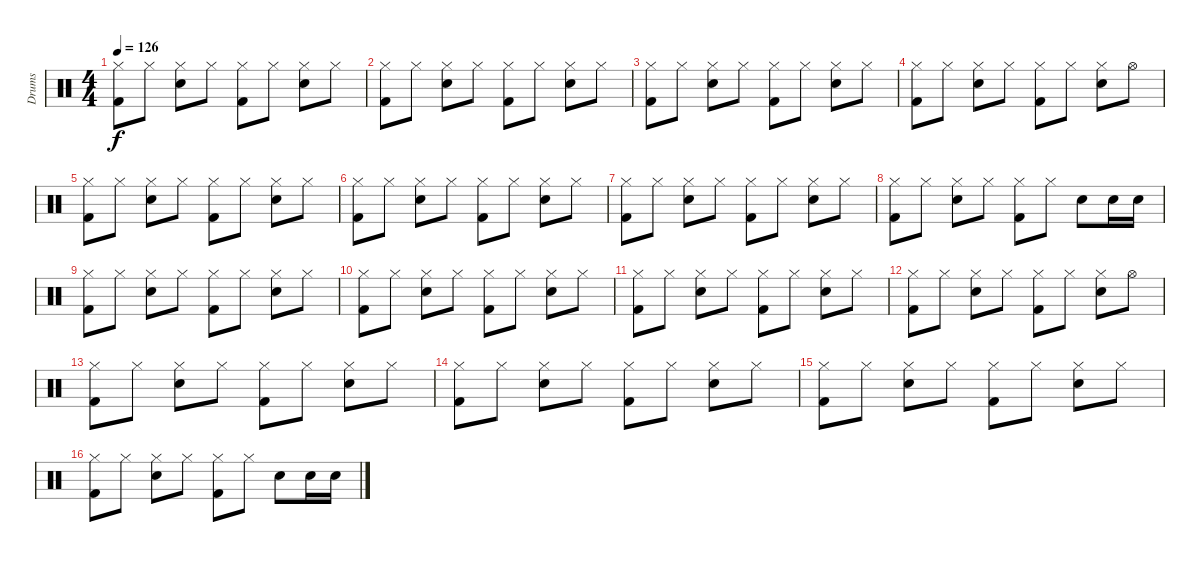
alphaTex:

\track ("Drums" "Drums") {instrument percussion}
\staff {score}
\articulation defaults
\ts (4 4)
\tempo 126
\clef neutral
\ks c
("Kick (hit) 2" "Hi-Hat (closed)").8{dy f} "Hi-Hat (closed)".8 ("Snare (hit) 2" "Hi-Hat (closed)").8 "Hi-Hat (closed)".8 ("Kick (hit) 2" "Hi-Hat (closed)").8 "Hi-Hat (closed)".8 ("Snare (hit) 2" "Hi-Hat (closed)").8 "Hi-Hat (closed)".8 |
("Kick (hit) 2" "Hi-Hat (closed)").8 "Hi-Hat (closed)".8 ("Snare (hit) 2" "Hi-Hat (closed)").8 "Hi-Hat (closed)".8 ("Kick (hit) 2" "Hi-Hat (closed)").8 "Hi-Hat (closed)".8 ("Snare (hit) 2" "Hi-Hat (closed)").8 "Hi-Hat (closed)".8 |
("Kick (hit) 2" "Hi-Hat (closed)").8 "Hi-Hat (closed)".8 ("Snare (hit) 2" "Hi-Hat (closed)").8 "Hi-Hat (closed)".8 ("Kick (hit) 2" "Hi-Hat (closed)").8 "Hi-Hat (closed)".8 ("Snare (hit) 2" "Hi-Hat (closed)").8 "Hi-Hat (closed)".8 |
("Kick (hit) 2" "Hi-Hat (closed)").8 "Hi-Hat (closed)".8 ("Snare (hit) 2" "Hi-Hat (closed)").8 "Hi-Hat (closed)".8 ("Kick (hit) 2" "Hi-Hat (closed)").8 "Hi-Hat (closed)".8 ("Snare (hit) 2" "Hi-Hat (closed)").8 "Hi-Hat (open)".8 |
("Kick (hit) 2" "Hi-Hat (closed)").8 "Hi-Hat (closed)".8 ("Snare (hit) 2" "Hi-Hat (closed)").8 "Hi-Hat (closed)".8 ("Kick (hit) 2" "Hi-Hat (closed)").8 "Hi-Hat (closed)".8 ("Snare (hit) 2" "Hi-Hat (closed)").8 "Hi-Hat (closed)".8 |
("Kick (hit) 2" "Hi-Hat (closed)").8 "Hi-Hat (closed)".8 ("Snare (hit) 2" "Hi-Hat (closed)").8 "Hi-Hat (closed)".8 ("Kick (hit) 2" "Hi-Hat (closed)").8 "Hi-Hat (closed)".8 ("Snare (hit) 2" "Hi-Hat (closed)").8 "Hi-Hat (closed)".8 |
("Kick (hit) 2" "Hi-Hat (closed)").8 "Hi-Hat (closed)".8 ("Snare (hit) 2" "Hi-Hat (closed)").8 "Hi-Hat (closed)".8 ("Kick (hit) 2" "Hi-Hat (closed)").8 "Hi-Hat (closed)".8 ("Snare (hit) 2" "Hi-Hat (closed)").8 "Hi-Hat (closed)".8 |
("Kick (hit) 2" "Hi-Hat (closed)").8 "Hi-Hat (closed)".8 ("Snare (hit) 2" "Hi-Hat (closed)").8 "Hi-Hat (closed)".8 ("Kick (hit) 2" "Hi-Hat (closed)").8 "Hi-Hat (closed)".8 "Snare (hit) 2".8 "Snare (hit) 2".16 "Snare (hit) 2".16 |
("Kick (hit) 2" "Hi-Hat (closed)").8 "Hi-Hat (closed)".8 ("Snare (hit) 2" "Hi-Hat (closed)").8 "Hi-Hat (closed)".8 ("Kick (hit) 2" "Hi-Hat (closed)").8 "Hi-Hat (closed)".8 ("Snare (hit) 2" "Hi-Hat (closed)").8 "Hi-Hat (closed)".8 |
("Kick (hit) 2" "Hi-Hat (closed)").8 "Hi-Hat (closed)".8 ("Snare (hit) 2" "Hi-Hat (closed)").8 "Hi-Hat (closed)".8 ("Kick (hit) 2" "Hi-Hat (closed)").8 "Hi-Hat (closed)".8 ("Snare (hit) 2" "Hi-Hat (closed)").8 "Hi-Hat (closed)".8 |
("Kick (hit) 2" "Hi-Hat (closed)").8 "Hi-Hat (closed)".8 ("Snare (hit) 2" "Hi-Hat (closed)").8 "Hi-Hat (closed)".8 ("Kick (hit) 2" "Hi-Hat (closed)").8 "Hi-Hat (closed)".8 ("Snare (hit) 2" "Hi-Hat (closed)").8 "Hi-Hat (closed)".8 |
("Kick (hit) 2" "Hi-Hat (closed)").8 "Hi-Hat (closed)".8 ("Snare (hit) 2" "Hi-Hat (closed)").8 "Hi-Hat (closed)".8 ("Kick (hit) 2" "Hi-Hat (closed)").8 "Hi-Hat (closed)".8 ("Snare (hit) 2" "Hi-Hat (closed)").8 "Hi-Hat (open)".8 |
("Kick (hit) 2" "Hi-Hat (closed)").8 "Hi-Hat (closed)".8 ("Snare (hit) 2" "Hi-Hat (closed)").8 "Hi-Hat (closed)".8 ("Kick (hit) 2" "Hi-Hat (closed)").8 "Hi-Hat (closed)".8 ("Snare (hit) 2" "Hi-Hat (closed)").8 "Hi-Hat (closed)".8 |
("Kick (hit) 2" "Hi-Hat (closed)").8 "Hi-Hat (closed)".8 ("Snare (hit) 2" "Hi-Hat (closed)").8 "Hi-Hat (closed)".8 ("Kick (hit) 2" "Hi-Hat (closed)").8 "Hi-Hat (closed)".8 ("Snare (hit) 2" "Hi-Hat (closed)").8 "Hi-Hat (closed)".8 |
("Kick (hit) 2" "Hi-Hat (closed)").8 "Hi-Hat (closed)".8 ("Snare (hit) 2" "Hi-Hat (closed)").8 "Hi-Hat (closed)".8 ("Kick (hit) 2" "Hi-Hat (closed)").8 "Hi-Hat (closed)".8 ("Snare (hit) 2" "Hi-Hat (closed)").8 "Hi-Hat (closed)".8 |
("Kick (hit) 2" "Hi-Hat (closed)").8 "Hi-Hat (closed)".8 ("Snare (hit) 2" "Hi-Hat (closed)").8 "Hi-Hat (closed)".8 ("Kick (hit) 2" "Hi-Hat (closed)").8 "Hi-Hat (closed)".8 "Snare (hit) 2".8 "Snare (hit) 2".16 "Snare (hit) 2".16
